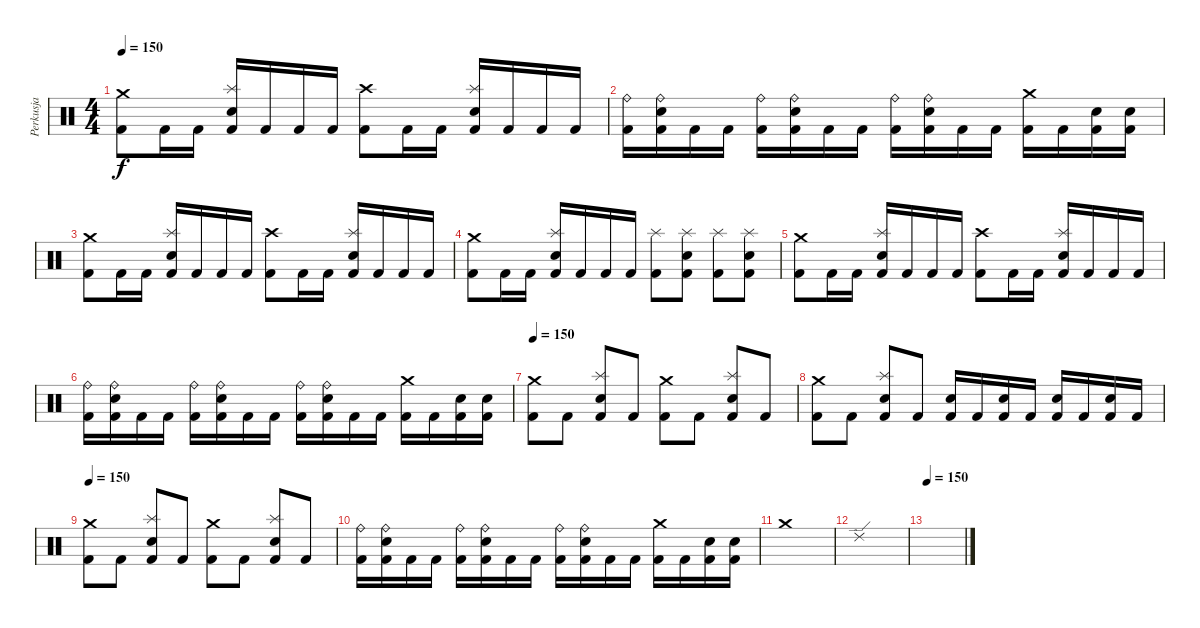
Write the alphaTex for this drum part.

\track ("Perkusja" "Perkusja") {instrument percussion}
\staff {score}
\articulation defaults
\ts (4 4)
\tempo 150
\clef neutral
\ks c
("Crash medium (hit)" "Kick (hit) 2").8{dy f} "Kick (hit) 2".16 "Kick (hit) 2".16 ("Splash (hit)" "Electric Snare (hit)" "Kick (hit) 2").16 "Kick (hit) 2".16 "Kick (hit) 2".16 "Kick (hit) 2".16 ("Crash high (hit)" "Kick (hit) 2").8 "Kick (hit) 2".16 "Kick (hit) 2".16 ("Splash (hit)" "Electric Snare (hit)" "Kick (hit) 2").16 "Kick (hit) 2".16 "Kick (hit) 2".16 "Kick (hit) 2".16 |
("Ride (bell)" "Kick (hit) 2").16 ("Ride (bell)" "Electric Snare (hit)" "Kick (hit) 2").16 "Kick (hit) 2".16 "Kick (hit) 2".16 ("Ride (bell)" "Kick (hit) 2").16 ("Ride (bell)" "Electric Snare (hit)" "Kick (hit) 2").16 "Kick (hit) 2".16 "Kick (hit) 2".16 ("Ride (bell)" "Kick (hit) 2").16 ("Ride (bell)" "Electric Snare (hit)" "Kick (hit) 2").16 "Kick (hit) 2".16 "Kick (hit) 2".16 ("Crash medium (hit)" "Kick (hit) 2").16 "Kick (hit) 2".16 ("Electric Snare (hit)" "Kick (hit) 2").16 ("Electric Snare (hit)" "Kick (hit) 2").16 |
("Crash medium (hit)" "Kick (hit) 2").8 "Kick (hit) 2".16 "Kick (hit) 2".16 ("Splash (hit)" "Electric Snare (hit)" "Kick (hit) 2").16 "Kick (hit) 2".16 "Kick (hit) 2".16 "Kick (hit) 2".16 ("Crash high (hit)" "Kick (hit) 2").8 "Kick (hit) 2".16 "Kick (hit) 2".16 ("Splash (hit)" "Electric Snare (hit)" "Kick (hit) 2").16 "Kick (hit) 2".16 "Kick (hit) 2".16 "Kick (hit) 2".16 |
("Crash medium (hit)" "Kick (hit) 2").8 "Kick (hit) 2".16 "Kick (hit) 2".16 ("Splash (hit)" "Electric Snare (hit)" "Kick (hit) 2").16 "Kick (hit) 2".16 "Kick (hit) 2".16 "Kick (hit) 2".16 ("Splash (hit)" "Kick (hit) 2").8 ("Splash (hit)" "Electric Snare (hit)" "Kick (hit) 2").8 ("Splash (hit)" "Kick (hit) 2").8 ("Splash (hit)" "Electric Snare (hit)" "Kick (hit) 2").8 |
("Crash medium (hit)" "Kick (hit) 2").8 "Kick (hit) 2".16 "Kick (hit) 2".16 ("Splash (hit)" "Electric Snare (hit)" "Kick (hit) 2").16 "Kick (hit) 2".16 "Kick (hit) 2".16 "Kick (hit) 2".16 ("Crash high (hit)" "Kick (hit) 2").8 "Kick (hit) 2".16 "Kick (hit) 2".16 ("Splash (hit)" "Electric Snare (hit)" "Kick (hit) 2").16 "Kick (hit) 2".16 "Kick (hit) 2".16 "Kick (hit) 2".16 |
("Ride (bell)" "Kick (hit) 2").16 ("Ride (bell)" "Electric Snare (hit)" "Kick (hit) 2").16 "Kick (hit) 2".16 "Kick (hit) 2".16 ("Ride (bell)" "Kick (hit) 2").16 ("Ride (bell)" "Electric Snare (hit)" "Kick (hit) 2").16 "Kick (hit) 2".16 "Kick (hit) 2".16 ("Ride (bell)" "Kick (hit) 2").16 ("Ride (bell)" "Electric Snare (hit)" "Kick (hit) 2").16 "Kick (hit) 2".16 "Kick (hit) 2".16 ("Crash medium (hit)" "Kick (hit) 2").16 "Kick (hit) 2".16 ("Electric Snare (hit)" "Kick (hit) 2").16 ("Electric Snare (hit)" "Kick (hit) 2").16 |
\tempo 150
("Crash medium (hit)" "Kick (hit) 2").8 "Kick (hit) 2".8 ("Splash (hit)" "Electric Snare (hit)" "Kick (hit) 2").8 "Kick (hit) 2".8 ("Crash medium (hit)" "Kick (hit) 2").8 "Kick (hit) 2".8 ("Splash (hit)" "Electric Snare (hit)" "Kick (hit) 2").8 "Kick (hit) 2".8 |
("Crash medium (hit)" "Kick (hit) 2").8 "Kick (hit) 2".8 ("Splash (hit)" "Electric Snare (hit)" "Kick (hit) 2").8 "Kick (hit) 2".8 ("Electric Snare (hit)" "Kick (hit) 2").16 "Kick (hit) 2".16 ("Electric Snare (hit)" "Kick (hit) 2").16 "Kick (hit) 2".16 ("Electric Snare (hit)" "Kick (hit) 2").16 "Kick (hit) 2".16 ("Electric Snare (hit)" "Kick (hit) 2").16 "Kick (hit) 2".16 |
\tempo 150
("Crash medium (hit)" "Kick (hit) 2").8 "Kick (hit) 2".8 ("Splash (hit)" "Electric Snare (hit)" "Kick (hit) 2").8 "Kick (hit) 2".8 ("Crash medium (hit)" "Kick (hit) 2").8 "Kick (hit) 2".8 ("Splash (hit)" "Electric Snare (hit)" "Kick (hit) 2").8 "Kick (hit) 2".8 |
("Ride (bell)" "Kick (hit) 2").16 ("Ride (bell)" "Electric Snare (hit)" "Kick (hit) 2").16 "Kick (hit) 2".16 "Kick (hit) 2".16 ("Ride (bell)" "Kick (hit) 2").16 ("Ride (bell)" "Electric Snare (hit)" "Kick (hit) 2").16 "Kick (hit) 2".16 "Kick (hit) 2".16 ("Ride (bell)" "Kick (hit) 2").16 ("Ride (bell)" "Electric Snare (hit)" "Kick (hit) 2").16 "Kick (hit) 2".16 "Kick (hit) 2".16 ("Crash medium (hit)" "Kick (hit) 2").16 "Kick (hit) 2".16 ("Electric Snare (hit)" "Kick (hit) 2").16 ("Electric Snare (hit)" "Kick (hit) 2").16 |
"Crash medium (hit)".1 |
"Ride (edge) 2".1 |
\tempo 150
